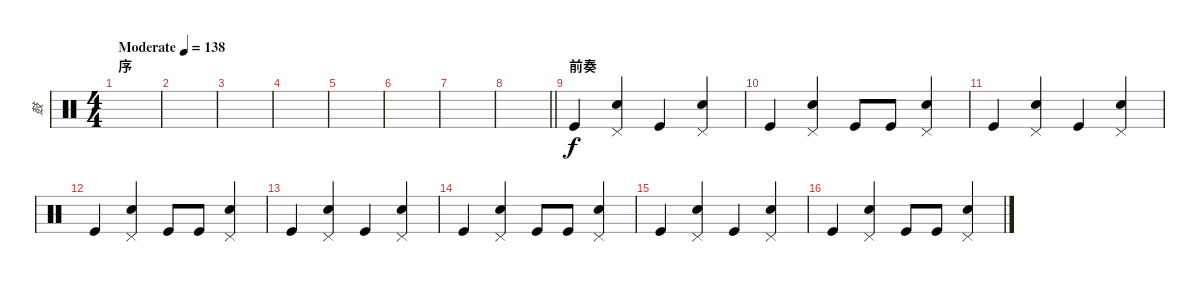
\track ("鼓" "鼓") {instrument percussion}
\staff {score}
\articulation defaults
\ts (4 4)
\section ("" "序")
\tempo (138 "Moderate")
\clef neutral
\ks c
|
|
|
|
|
|
|
\barLineRight lightlight
|
\section ("" "前奏")
"Kick (hit)".4 ("Snare (hit) 2" "Pedal Hi-Hat (hit)").4 "Kick (hit)".4 ("Snare (hit) 2" "Pedal Hi-Hat (hit)").4 |
"Kick (hit)".4 ("Snare (hit) 2" "Pedal Hi-Hat (hit)").4 "Kick (hit)".8 "Kick (hit)".8 ("Snare (hit) 2" "Pedal Hi-Hat (hit)").4 |
"Kick (hit)".4 ("Snare (hit) 2" "Pedal Hi-Hat (hit)").4 "Kick (hit)".4 ("Snare (hit) 2" "Pedal Hi-Hat (hit)").4 |
"Kick (hit)".4 ("Snare (hit) 2" "Pedal Hi-Hat (hit)").4 "Kick (hit)".8 "Kick (hit)".8 ("Snare (hit) 2" "Pedal Hi-Hat (hit)").4 |
"Kick (hit)".4 ("Snare (hit) 2" "Pedal Hi-Hat (hit)").4 "Kick (hit)".4 ("Snare (hit) 2" "Pedal Hi-Hat (hit)").4 |
"Kick (hit)".4 ("Snare (hit) 2" "Pedal Hi-Hat (hit)").4 "Kick (hit)".8 "Kick (hit)".8 ("Snare (hit) 2" "Pedal Hi-Hat (hit)").4 |
"Kick (hit)".4 ("Snare (hit) 2" "Pedal Hi-Hat (hit)").4 "Kick (hit)".4 ("Snare (hit) 2" "Pedal Hi-Hat (hit)").4 |
"Kick (hit)".4 ("Snare (hit) 2" "Pedal Hi-Hat (hit)").4 "Kick (hit)".8 "Kick (hit)".8 ("Snare (hit) 2" "Pedal Hi-Hat (hit)").4
